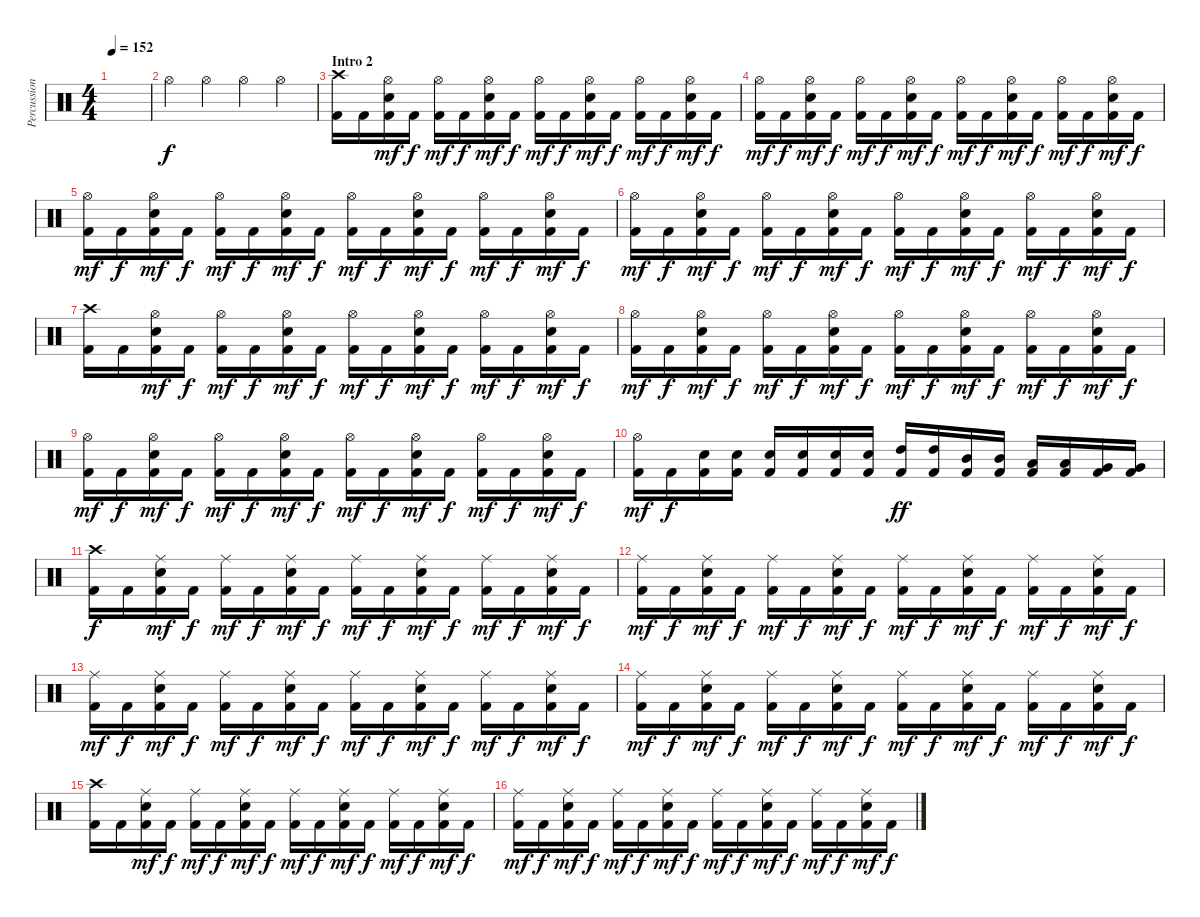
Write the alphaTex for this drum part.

\track ("Percussion" "Percussion") {instrument percussion}
\staff {score}
\articulation defaults
\ts (4 4)
\tempo 152
\clef neutral
\ks c
|
"Hi-Hat (open)".4 "Hi-Hat (open)".4 "Hi-Hat (open)".4 "Hi-Hat (open)".4 |
\section ("" "Intro 2")
("Crash high (hit)" "Kick (hit) 2").16 "Kick (hit) 2".16 ("Hi-Hat (open)" "Electric Snare (hit)" "Kick (hit) 2").16{dy mf} "Kick (hit) 2".16{dy f} ("Hi-Hat (open)" "Kick (hit) 2").16{dy mf} "Kick (hit) 2".16{dy f} ("Hi-Hat (open)" "Electric Snare (hit)" "Kick (hit) 2").16{dy mf} "Kick (hit) 2".16{dy f} ("Hi-Hat (open)" "Kick (hit) 2").16{dy mf} "Kick (hit) 2".16{dy f} ("Hi-Hat (open)" "Electric Snare (hit)" "Kick (hit) 2").16{dy mf} "Kick (hit) 2".16{dy f} ("Hi-Hat (open)" "Kick (hit) 2").16{dy mf} "Kick (hit) 2".16{dy f} ("Hi-Hat (open)" "Electric Snare (hit)" "Kick (hit) 2").16{dy mf} "Kick (hit) 2".16{dy f} |
("Hi-Hat (open)" "Kick (hit) 2").16{dy mf} "Kick (hit) 2".16{dy f} ("Hi-Hat (open)" "Electric Snare (hit)" "Kick (hit) 2").16{dy mf} "Kick (hit) 2".16{dy f} ("Hi-Hat (open)" "Kick (hit) 2").16{dy mf} "Kick (hit) 2".16{dy f} ("Hi-Hat (open)" "Electric Snare (hit)" "Kick (hit) 2").16{dy mf} "Kick (hit) 2".16{dy f} ("Hi-Hat (open)" "Kick (hit) 2").16{dy mf} "Kick (hit) 2".16{dy f} ("Hi-Hat (open)" "Electric Snare (hit)" "Kick (hit) 2").16{dy mf} "Kick (hit) 2".16{dy f} ("Hi-Hat (open)" "Kick (hit) 2").16{dy mf} "Kick (hit) 2".16{dy f} ("Hi-Hat (open)" "Electric Snare (hit)" "Kick (hit) 2").16{dy mf} "Kick (hit) 2".16{dy f} |
("Hi-Hat (open)" "Kick (hit) 2").16{dy mf} "Kick (hit) 2".16{dy f} ("Hi-Hat (open)" "Electric Snare (hit)" "Kick (hit) 2").16{dy mf} "Kick (hit) 2".16{dy f} ("Hi-Hat (open)" "Kick (hit) 2").16{dy mf} "Kick (hit) 2".16{dy f} ("Hi-Hat (open)" "Electric Snare (hit)" "Kick (hit) 2").16{dy mf} "Kick (hit) 2".16{dy f} ("Hi-Hat (open)" "Kick (hit) 2").16{dy mf} "Kick (hit) 2".16{dy f} ("Hi-Hat (open)" "Electric Snare (hit)" "Kick (hit) 2").16{dy mf} "Kick (hit) 2".16{dy f} ("Hi-Hat (open)" "Kick (hit) 2").16{dy mf} "Kick (hit) 2".16{dy f} ("Hi-Hat (open)" "Electric Snare (hit)" "Kick (hit) 2").16{dy mf} "Kick (hit) 2".16{dy f} |
("Hi-Hat (open)" "Kick (hit) 2").16{dy mf} "Kick (hit) 2".16{dy f} ("Hi-Hat (open)" "Electric Snare (hit)" "Kick (hit) 2").16{dy mf} "Kick (hit) 2".16{dy f} ("Hi-Hat (open)" "Kick (hit) 2").16{dy mf} "Kick (hit) 2".16{dy f} ("Hi-Hat (open)" "Electric Snare (hit)" "Kick (hit) 2").16{dy mf} "Kick (hit) 2".16{dy f} ("Hi-Hat (open)" "Kick (hit) 2").16{dy mf} "Kick (hit) 2".16{dy f} ("Hi-Hat (open)" "Electric Snare (hit)" "Kick (hit) 2").16{dy mf} "Kick (hit) 2".16{dy f} ("Hi-Hat (open)" "Kick (hit) 2").16{dy mf} "Kick (hit) 2".16{dy f} ("Hi-Hat (open)" "Electric Snare (hit)" "Kick (hit) 2").16{dy mf} "Kick (hit) 2".16{dy f} |
("Crash high (hit)" "Kick (hit) 2").16 "Kick (hit) 2".16 ("Hi-Hat (open)" "Electric Snare (hit)" "Kick (hit) 2").16{dy mf} "Kick (hit) 2".16{dy f} ("Hi-Hat (open)" "Kick (hit) 2").16{dy mf} "Kick (hit) 2".16{dy f} ("Hi-Hat (open)" "Electric Snare (hit)" "Kick (hit) 2").16{dy mf} "Kick (hit) 2".16{dy f} ("Hi-Hat (open)" "Kick (hit) 2").16{dy mf} "Kick (hit) 2".16{dy f} ("Hi-Hat (open)" "Electric Snare (hit)" "Kick (hit) 2").16{dy mf} "Kick (hit) 2".16{dy f} ("Hi-Hat (open)" "Kick (hit) 2").16{dy mf} "Kick (hit) 2".16{dy f} ("Hi-Hat (open)" "Electric Snare (hit)" "Kick (hit) 2").16{dy mf} "Kick (hit) 2".16{dy f} |
("Hi-Hat (open)" "Kick (hit) 2").16{dy mf} "Kick (hit) 2".16{dy f} ("Hi-Hat (open)" "Electric Snare (hit)" "Kick (hit) 2").16{dy mf} "Kick (hit) 2".16{dy f} ("Hi-Hat (open)" "Kick (hit) 2").16{dy mf} "Kick (hit) 2".16{dy f} ("Hi-Hat (open)" "Electric Snare (hit)" "Kick (hit) 2").16{dy mf} "Kick (hit) 2".16{dy f} ("Hi-Hat (open)" "Kick (hit) 2").16{dy mf} "Kick (hit) 2".16{dy f} ("Hi-Hat (open)" "Electric Snare (hit)" "Kick (hit) 2").16{dy mf} "Kick (hit) 2".16{dy f} ("Hi-Hat (open)" "Kick (hit) 2").16{dy mf} "Kick (hit) 2".16{dy f} ("Hi-Hat (open)" "Electric Snare (hit)" "Kick (hit) 2").16{dy mf} "Kick (hit) 2".16{dy f} |
("Hi-Hat (open)" "Kick (hit) 2").16{dy mf} "Kick (hit) 2".16{dy f} ("Hi-Hat (open)" "Electric Snare (hit)" "Kick (hit) 2").16{dy mf} "Kick (hit) 2".16{dy f} ("Hi-Hat (open)" "Kick (hit) 2").16{dy mf} "Kick (hit) 2".16{dy f} ("Hi-Hat (open)" "Electric Snare (hit)" "Kick (hit) 2").16{dy mf} "Kick (hit) 2".16{dy f} ("Hi-Hat (open)" "Kick (hit) 2").16{dy mf} "Kick (hit) 2".16{dy f} ("Hi-Hat (open)" "Electric Snare (hit)" "Kick (hit) 2").16{dy mf} "Kick (hit) 2".16{dy f} ("Hi-Hat (open)" "Kick (hit) 2").16{dy mf} "Kick (hit) 2".16{dy f} ("Hi-Hat (open)" "Electric Snare (hit)" "Kick (hit) 2").16{dy mf} "Kick (hit) 2".16{dy f} |
("Hi-Hat (open)" "Kick (hit) 2").16{dy mf} "Kick (hit) 2".16{dy f} ("Electric Snare (hit)" "Kick (hit) 2").16 ("Electric Snare (hit)" "Kick (hit) 2").16 ("Electric Snare (hit)" "Kick (hit) 2").16 ("Electric Snare (hit)" "Kick (hit) 2").16 ("Electric Snare (hit)" "Kick (hit) 2").16 ("Electric Snare (hit)" "Kick (hit) 2").16 ("High Tom (hit)" "Kick (hit) 2").16{dy ff} ("High Tom (hit)" "Kick (hit) 2").16 ("Mid Tom (hit)" "Kick (hit) 2").16 ("Mid Tom (hit)" "Kick (hit) 2").16 ("Low Tom (hit)" "Kick (hit) 2").16 ("Low Tom (hit)" "Kick (hit) 2").16 ("Very Low Tom (hit)" "Kick (hit) 2").16 ("Very Low Tom (hit)" "Kick (hit) 2").16 |
("Crash high (hit)" "Kick (hit) 2").16{dy f} "Kick (hit) 2".16 ("Ride (middle)" "Electric Snare (hit)" "Kick (hit) 2").16{dy mf} "Kick (hit) 2".16{dy f} ("Ride (middle)" "Kick (hit) 2").16{dy mf} "Kick (hit) 2".16{dy f} ("Ride (middle)" "Electric Snare (hit)" "Kick (hit) 2").16{dy mf} "Kick (hit) 2".16{dy f} ("Ride (middle)" "Kick (hit) 2").16{dy mf} "Kick (hit) 2".16{dy f} ("Ride (middle)" "Electric Snare (hit)" "Kick (hit) 2").16{dy mf} "Kick (hit) 2".16{dy f} ("Ride (middle)" "Kick (hit) 2").16{dy mf} "Kick (hit) 2".16{dy f} ("Ride (middle)" "Electric Snare (hit)" "Kick (hit) 2").16{dy mf} "Kick (hit) 2".16{dy f} |
("Ride (middle)" "Kick (hit) 2").16{dy mf} "Kick (hit) 2".16{dy f} ("Ride (middle)" "Electric Snare (hit)" "Kick (hit) 2").16{dy mf} "Kick (hit) 2".16{dy f} ("Ride (middle)" "Kick (hit) 2").16{dy mf} "Kick (hit) 2".16{dy f} ("Ride (middle)" "Electric Snare (hit)" "Kick (hit) 2").16{dy mf} "Kick (hit) 2".16{dy f} ("Ride (middle)" "Kick (hit) 2").16{dy mf} "Kick (hit) 2".16{dy f} ("Ride (middle)" "Electric Snare (hit)" "Kick (hit) 2").16{dy mf} "Kick (hit) 2".16{dy f} ("Ride (middle)" "Kick (hit) 2").16{dy mf} "Kick (hit) 2".16{dy f} ("Ride (middle)" "Electric Snare (hit)" "Kick (hit) 2").16{dy mf} "Kick (hit) 2".16{dy f} |
("Ride (middle)" "Kick (hit) 2").16{dy mf} "Kick (hit) 2".16{dy f} ("Ride (middle)" "Electric Snare (hit)" "Kick (hit) 2").16{dy mf} "Kick (hit) 2".16{dy f} ("Ride (middle)" "Kick (hit) 2").16{dy mf} "Kick (hit) 2".16{dy f} ("Ride (middle)" "Electric Snare (hit)" "Kick (hit) 2").16{dy mf} "Kick (hit) 2".16{dy f} ("Ride (middle)" "Kick (hit) 2").16{dy mf} "Kick (hit) 2".16{dy f} ("Ride (middle)" "Electric Snare (hit)" "Kick (hit) 2").16{dy mf} "Kick (hit) 2".16{dy f} ("Ride (middle)" "Kick (hit) 2").16{dy mf} "Kick (hit) 2".16{dy f} ("Ride (middle)" "Electric Snare (hit)" "Kick (hit) 2").16{dy mf} "Kick (hit) 2".16{dy f} |
("Ride (middle)" "Kick (hit) 2").16{dy mf} "Kick (hit) 2".16{dy f} ("Ride (middle)" "Electric Snare (hit)" "Kick (hit) 2").16{dy mf} "Kick (hit) 2".16{dy f} ("Ride (middle)" "Kick (hit) 2").16{dy mf} "Kick (hit) 2".16{dy f} ("Ride (middle)" "Electric Snare (hit)" "Kick (hit) 2").16{dy mf} "Kick (hit) 2".16{dy f} ("Ride (middle)" "Kick (hit) 2").16{dy mf} "Kick (hit) 2".16{dy f} ("Ride (middle)" "Electric Snare (hit)" "Kick (hit) 2").16{dy mf} "Kick (hit) 2".16{dy f} ("Ride (middle)" "Kick (hit) 2").16{dy mf} "Kick (hit) 2".16{dy f} ("Ride (middle)" "Electric Snare (hit)" "Kick (hit) 2").16{dy mf} "Kick (hit) 2".16{dy f} |
("Crash high (hit)" "Kick (hit) 2").16 "Kick (hit) 2".16 ("Ride (middle)" "Electric Snare (hit)" "Kick (hit) 2").16{dy mf} "Kick (hit) 2".16{dy f} ("Ride (middle)" "Kick (hit) 2").16{dy mf} "Kick (hit) 2".16{dy f} ("Ride (middle)" "Electric Snare (hit)" "Kick (hit) 2").16{dy mf} "Kick (hit) 2".16{dy f} ("Ride (middle)" "Kick (hit) 2").16{dy mf} "Kick (hit) 2".16{dy f} ("Ride (middle)" "Electric Snare (hit)" "Kick (hit) 2").16{dy mf} "Kick (hit) 2".16{dy f} ("Ride (middle)" "Kick (hit) 2").16{dy mf} "Kick (hit) 2".16{dy f} ("Ride (middle)" "Electric Snare (hit)" "Kick (hit) 2").16{dy mf} "Kick (hit) 2".16{dy f} |
("Ride (middle)" "Kick (hit) 2").16{dy mf} "Kick (hit) 2".16{dy f} ("Ride (middle)" "Electric Snare (hit)" "Kick (hit) 2").16{dy mf} "Kick (hit) 2".16{dy f} ("Ride (middle)" "Kick (hit) 2").16{dy mf} "Kick (hit) 2".16{dy f} ("Ride (middle)" "Electric Snare (hit)" "Kick (hit) 2").16{dy mf} "Kick (hit) 2".16{dy f} ("Ride (middle)" "Kick (hit) 2").16{dy mf} "Kick (hit) 2".16{dy f} ("Ride (middle)" "Electric Snare (hit)" "Kick (hit) 2").16{dy mf} "Kick (hit) 2".16{dy f} ("Ride (middle)" "Kick (hit) 2").16{dy mf} "Kick (hit) 2".16{dy f} ("Ride (middle)" "Electric Snare (hit)" "Kick (hit) 2").16{dy mf} "Kick (hit) 2".16{dy f}
